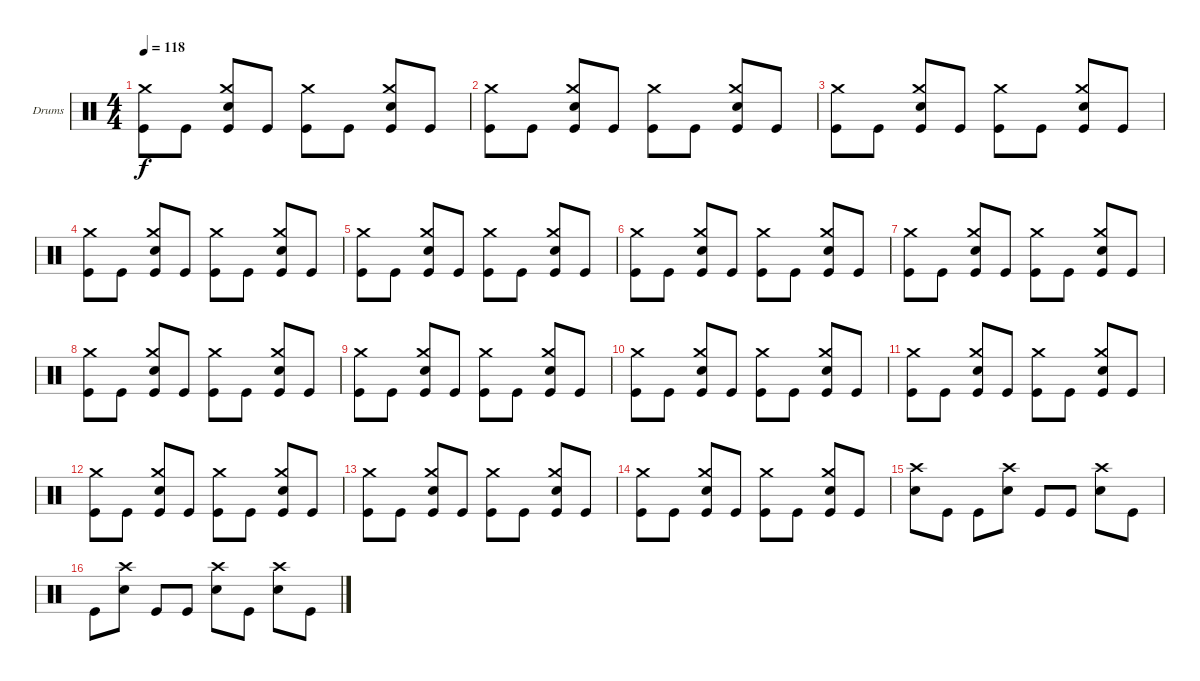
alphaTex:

\bracketExtendMode groupsimilarinstruments
\firstSystemTrackNameOrientation horizontal
\otherSystemsTrackNameOrientation horizontal
\track ("Drumkit" "Drums") {solo instrument percussion}
\staff {score}
\articulation defaults
\ts (4 4)
\tempo 118
\clef neutral
\ks c
("Kick (hit)" "Crash medium (hit)").8{dy f} "Kick (hit)".8 ("Kick (hit)" "Snare (hit) 2" "Crash medium (hit)").8 "Kick (hit)".8 ("Kick (hit)" "Crash medium (hit)").8 "Kick (hit)".8 ("Kick (hit)" "Snare (hit) 2" "Crash medium (hit)").8 "Kick (hit)".8 |
("Kick (hit)" "Crash medium (hit)").8 "Kick (hit)".8 ("Kick (hit)" "Snare (hit) 2" "Crash medium (hit)").8 "Kick (hit)".8 ("Kick (hit)" "Crash medium (hit)").8 "Kick (hit)".8 ("Kick (hit)" "Snare (hit) 2" "Crash medium (hit)").8 "Kick (hit)".8 |
("Kick (hit)" "Crash medium (hit)").8 "Kick (hit)".8 ("Kick (hit)" "Snare (hit) 2" "Crash medium (hit)").8 "Kick (hit)".8 ("Kick (hit)" "Crash medium (hit)").8 "Kick (hit)".8 ("Kick (hit)" "Snare (hit) 2" "Crash medium (hit)").8 "Kick (hit)".8 |
("Kick (hit)" "Crash medium (hit)").8 "Kick (hit)".8 ("Kick (hit)" "Snare (hit) 2" "Crash medium (hit)").8 "Kick (hit)".8 ("Kick (hit)" "Crash medium (hit)").8 "Kick (hit)".8 ("Kick (hit)" "Snare (hit) 2" "Crash medium (hit)").8 "Kick (hit)".8 |
("Kick (hit)" "Crash medium (hit)").8 "Kick (hit)".8 ("Kick (hit)" "Snare (hit) 2" "Crash medium (hit)").8 "Kick (hit)".8 ("Kick (hit)" "Crash medium (hit)").8 "Kick (hit)".8 ("Kick (hit)" "Snare (hit) 2" "Crash medium (hit)").8 "Kick (hit)".8 |
("Kick (hit)" "Crash medium (hit)").8 "Kick (hit)".8 ("Kick (hit)" "Snare (hit) 2" "Crash medium (hit)").8 "Kick (hit)".8 ("Kick (hit)" "Crash medium (hit)").8 "Kick (hit)".8 ("Kick (hit)" "Snare (hit) 2" "Crash medium (hit)").8 "Kick (hit)".8 |
("Kick (hit)" "Crash medium (hit)").8 "Kick (hit)".8 ("Kick (hit)" "Snare (hit) 2" "Crash medium (hit)").8 "Kick (hit)".8 ("Kick (hit)" "Crash medium (hit)").8 "Kick (hit)".8 ("Kick (hit)" "Snare (hit) 2" "Crash medium (hit)").8 "Kick (hit)".8 |
("Kick (hit)" "Crash medium (hit)").8 "Kick (hit)".8 ("Kick (hit)" "Snare (hit) 2" "Crash medium (hit)").8 "Kick (hit)".8 ("Kick (hit)" "Crash medium (hit)").8 "Kick (hit)".8 ("Kick (hit)" "Snare (hit) 2" "Crash medium (hit)").8 "Kick (hit)".8 |
("Kick (hit)" "Crash medium (hit)").8 "Kick (hit)".8 ("Kick (hit)" "Snare (hit) 2" "Crash medium (hit)").8 "Kick (hit)".8 ("Kick (hit)" "Crash medium (hit)").8 "Kick (hit)".8 ("Kick (hit)" "Snare (hit) 2" "Crash medium (hit)").8 "Kick (hit)".8 |
("Kick (hit)" "Crash medium (hit)").8 "Kick (hit)".8 ("Kick (hit)" "Snare (hit) 2" "Crash medium (hit)").8 "Kick (hit)".8 ("Kick (hit)" "Crash medium (hit)").8 "Kick (hit)".8 ("Kick (hit)" "Snare (hit) 2" "Crash medium (hit)").8 "Kick (hit)".8 |
("Kick (hit)" "Crash medium (hit)").8 "Kick (hit)".8 ("Kick (hit)" "Snare (hit) 2" "Crash medium (hit)").8 "Kick (hit)".8 ("Kick (hit)" "Crash medium (hit)").8 "Kick (hit)".8 ("Kick (hit)" "Snare (hit) 2" "Crash medium (hit)").8 "Kick (hit)".8 |
("Kick (hit)" "Crash medium (hit)").8 "Kick (hit)".8 ("Kick (hit)" "Snare (hit) 2" "Crash medium (hit)").8 "Kick (hit)".8 ("Kick (hit)" "Crash medium (hit)").8 "Kick (hit)".8 ("Kick (hit)" "Snare (hit) 2" "Crash medium (hit)").8 "Kick (hit)".8 |
("Kick (hit)" "Crash medium (hit)").8 "Kick (hit)".8 ("Kick (hit)" "Snare (hit) 2" "Crash medium (hit)").8 "Kick (hit)".8 ("Kick (hit)" "Crash medium (hit)").8 "Kick (hit)".8 ("Kick (hit)" "Snare (hit) 2" "Crash medium (hit)").8 "Kick (hit)".8 |
("Kick (hit)" "Crash medium (hit)").8 "Kick (hit)".8 ("Kick (hit)" "Snare (hit) 2" "Crash medium (hit)").8 "Kick (hit)".8 ("Kick (hit)" "Crash medium (hit)").8 "Kick (hit)".8 ("Kick (hit)" "Snare (hit) 2" "Crash medium (hit)").8 "Kick (hit)".8 |
("Snare (hit) 2" "Crash high (hit)").8 "Kick (hit)".8 "Kick (hit)".8 ("Snare (hit) 2" "Crash high (hit)").8 "Kick (hit)".8 "Kick (hit)".8 ("Snare (hit) 2" "Crash high (hit)").8 "Kick (hit)".8 |
"Kick (hit)".8 ("Snare (hit) 2" "Crash high (hit)").8 "Kick (hit)".8 "Kick (hit)".8 ("Snare (hit) 2" "Crash high (hit)").8 "Kick (hit)".8 ("Snare (hit) 2" "Crash high (hit)").8 "Kick (hit)".8
